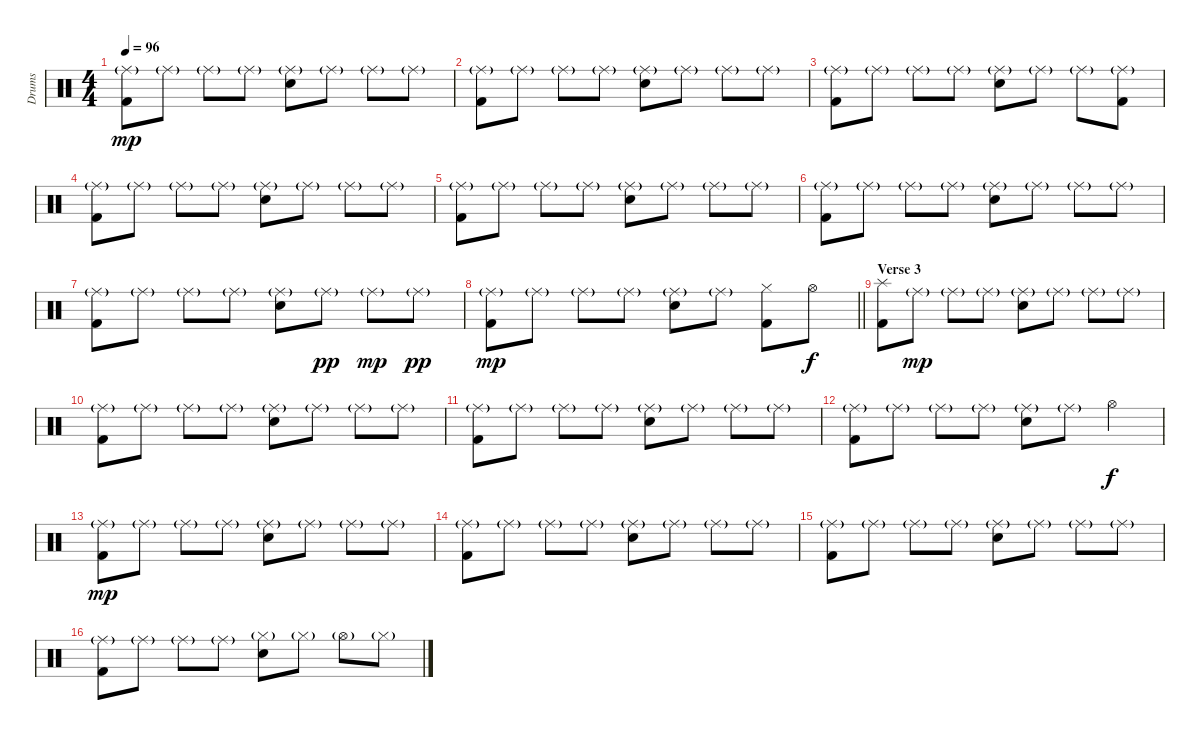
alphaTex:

\track ("Drums" "Drums") {instrument percussion}
\staff {score}
\articulation defaults
\ts (4 4)
\tempo 96
\clef neutral
\ks c
("Ride (middle)"{g} "Kick (hit) 2").8{dy mp} "Ride (middle)"{g}.8 "Ride (middle)"{g}.8 "Ride (middle)"{g}.8 ("Ride (middle)"{g} "Electric Snare (hit)").8 "Ride (middle)"{g}.8 "Ride (middle)"{g}.8 "Ride (middle)"{g}.8 |
("Ride (middle)"{g} "Kick (hit) 2").8 "Ride (middle)"{g}.8 "Ride (middle)"{g}.8 "Ride (middle)"{g}.8 ("Ride (middle)"{g} "Electric Snare (hit)").8 "Ride (middle)"{g}.8 "Ride (middle)"{g}.8 "Ride (middle)"{g}.8 |
("Ride (middle)"{g} "Kick (hit) 2").8 "Ride (middle)"{g}.8 "Ride (middle)"{g}.8 "Ride (middle)"{g}.8 ("Ride (middle)"{g} "Electric Snare (hit)").8 "Ride (middle)"{g}.8 "Ride (middle)"{g}.8 ("Ride (middle)"{g} "Kick (hit) 2").8 |
("Ride (middle)"{g} "Kick (hit) 2").8 "Ride (middle)"{g}.8 "Ride (middle)"{g}.8 "Ride (middle)"{g}.8 ("Ride (middle)"{g} "Electric Snare (hit)").8 "Ride (middle)"{g}.8 "Ride (middle)"{g}.8 "Ride (middle)"{g}.8 |
("Ride (middle)"{g} "Kick (hit) 2").8 "Ride (middle)"{g}.8 "Ride (middle)"{g}.8 "Ride (middle)"{g}.8 ("Ride (middle)"{g} "Electric Snare (hit)").8 "Ride (middle)"{g}.8 "Ride (middle)"{g}.8 "Ride (middle)"{g}.8 |
("Ride (middle)"{g} "Kick (hit) 2").8 "Ride (middle)"{g}.8 "Ride (middle)"{g}.8 "Ride (middle)"{g}.8 ("Ride (middle)"{g} "Electric Snare (hit)").8 "Ride (middle)"{g}.8 "Ride (middle)"{g}.8 "Ride (middle)"{g}.8 |
("Ride (middle)"{g} "Kick (hit) 2").8 "Ride (middle)"{g}.8 "Ride (middle)"{g}.8 "Ride (middle)"{g}.8 ("Ride (middle)"{g} "Electric Snare (hit)").8 "Ride (middle)"{g}.8{dy pp} "Ride (middle)"{g}.8{dy mp} "Ride (middle)"{g}.8{dy pp} |
\barLineRight lightlight
("Ride (middle)"{g} "Kick (hit) 2").8{dy mp} "Ride (middle)"{g}.8 "Ride (middle)"{g}.8 "Ride (middle)"{g}.8 ("Ride (middle)"{g} "Electric Snare (hit)").8 "Ride (middle)"{g}.8 ("Hi-Hat (closed)" "Kick (hit) 2").8 "Hi-Hat (open)".8{dy f} |
\section ("" "Verse 3")
("Splash (hit)" "Kick (hit) 2").8 "Ride (middle)"{g}.8{dy mp} "Ride (middle)"{g}.8 "Ride (middle)"{g}.8 ("Ride (middle)"{g} "Electric Snare (hit)").8 "Ride (middle)"{g}.8 "Ride (middle)"{g}.8 "Ride (middle)"{g}.8 |
("Ride (middle)"{g} "Kick (hit) 2").8 "Ride (middle)"{g}.8 "Ride (middle)"{g}.8 "Ride (middle)"{g}.8 ("Ride (middle)"{g} "Electric Snare (hit)").8 "Ride (middle)"{g}.8 "Ride (middle)"{g}.8 "Ride (middle)"{g}.8 |
("Ride (middle)"{g} "Kick (hit) 2").8 "Ride (middle)"{g}.8 "Ride (middle)"{g}.8 "Ride (middle)"{g}.8 ("Ride (middle)"{g} "Electric Snare (hit)").8 "Ride (middle)"{g}.8 "Ride (middle)"{g}.8 "Ride (middle)"{g}.8 |
("Ride (middle)"{g} "Kick (hit) 2").8 "Ride (middle)"{g}.8 "Ride (middle)"{g}.8 "Ride (middle)"{g}.8 ("Ride (middle)"{g} "Electric Snare (hit)").8 "Ride (middle)"{g}.8 "Hi-Hat (open)".4{dy f} |
("Ride (middle)"{g} "Kick (hit) 2").8{dy mp} "Ride (middle)"{g}.8 "Ride (middle)"{g}.8 "Ride (middle)"{g}.8 ("Ride (middle)"{g} "Electric Snare (hit)").8 "Ride (middle)"{g}.8 "Ride (middle)"{g}.8 "Ride (middle)"{g}.8 |
("Ride (middle)"{g} "Kick (hit) 2").8 "Ride (middle)"{g}.8 "Ride (middle)"{g}.8 "Ride (middle)"{g}.8 ("Ride (middle)"{g} "Electric Snare (hit)").8 "Ride (middle)"{g}.8 "Ride (middle)"{g}.8 "Ride (middle)"{g}.8 |
("Ride (middle)"{g} "Kick (hit) 2").8 "Ride (middle)"{g}.8 "Ride (middle)"{g}.8 "Ride (middle)"{g}.8 ("Ride (middle)"{g} "Electric Snare (hit)").8 "Ride (middle)"{g}.8 "Ride (middle)"{g}.8 "Ride (middle)"{g}.8 |
("Ride (middle)"{g} "Kick (hit) 2").8 "Ride (middle)"{g}.8 "Ride (middle)"{g}.8 "Ride (middle)"{g}.8 ("Hi-Hat (closed)"{g} "Electric Snare (hit)").8 "Hi-Hat (closed)"{g}.8 "Hi-Hat (open)"{g}.8 "Hi-Hat (closed)"{g}.8
